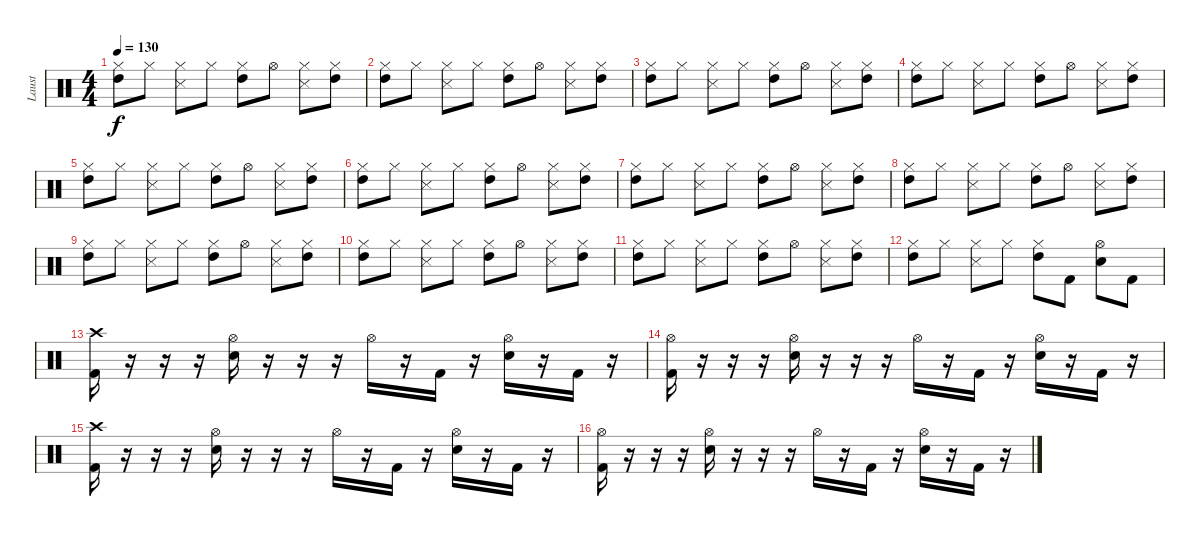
\track ("Laust" "Laust") {instrument percussion}
\staff {score}
\articulation defaults
\ts (4 4)
\tempo 130
\clef neutral
\ks c
("Hi-Hat (closed)" "High Tom (hit)").8{dy f} "Hi-Hat (closed)".8 ("Hi-Hat (closed)" "Snare (side stick) 3").8 "Hi-Hat (closed)".8 ("Hi-Hat (closed)" "High Tom (hit)").8 "Hi-Hat (open)".8 ("Hi-Hat (closed)" "Snare (side stick) 3").8 ("Hi-Hat (closed)" "High Tom (hit)").8 |
("Hi-Hat (closed)" "High Tom (hit)").8 "Hi-Hat (closed)".8 ("Hi-Hat (closed)" "Snare (side stick) 3").8 "Hi-Hat (closed)".8 ("Hi-Hat (closed)" "High Tom (hit)").8 "Hi-Hat (open)".8 ("Hi-Hat (closed)" "Snare (side stick) 3").8 ("Hi-Hat (closed)" "High Tom (hit)").8 |
("Hi-Hat (closed)" "High Tom (hit)").8 "Hi-Hat (closed)".8 ("Hi-Hat (closed)" "Snare (side stick) 3").8 "Hi-Hat (closed)".8 ("Hi-Hat (closed)" "High Tom (hit)").8 "Hi-Hat (open)".8 ("Hi-Hat (closed)" "Snare (side stick) 3").8 ("Hi-Hat (closed)" "High Tom (hit)").8 |
("Hi-Hat (closed)" "High Tom (hit)").8 "Hi-Hat (closed)".8 ("Hi-Hat (closed)" "Snare (side stick) 3").8 "Hi-Hat (closed)".8 ("Hi-Hat (closed)" "High Tom (hit)").8 "Hi-Hat (open)".8 ("Hi-Hat (closed)" "Snare (side stick) 3").8 ("Hi-Hat (closed)" "High Tom (hit)").8 |
("Hi-Hat (closed)" "High Tom (hit)").8 "Hi-Hat (closed)".8 ("Hi-Hat (closed)" "Snare (side stick) 3").8 "Hi-Hat (closed)".8 ("Hi-Hat (closed)" "High Tom (hit)").8 "Hi-Hat (open)".8 ("Hi-Hat (closed)" "Snare (side stick) 3").8 ("Hi-Hat (closed)" "High Tom (hit)").8 |
("Hi-Hat (closed)" "High Tom (hit)").8 "Hi-Hat (closed)".8 ("Hi-Hat (closed)" "Snare (side stick) 3").8 "Hi-Hat (closed)".8 ("Hi-Hat (closed)" "High Tom (hit)").8 "Hi-Hat (open)".8 ("Hi-Hat (closed)" "Snare (side stick) 3").8 ("Hi-Hat (closed)" "High Tom (hit)").8 |
("Hi-Hat (closed)" "High Tom (hit)").8 "Hi-Hat (closed)".8 ("Hi-Hat (closed)" "Snare (side stick) 3").8 "Hi-Hat (closed)".8 ("Hi-Hat (closed)" "High Tom (hit)").8 "Hi-Hat (open)".8 ("Hi-Hat (closed)" "Snare (side stick) 3").8 ("Hi-Hat (closed)" "High Tom (hit)").8 |
("Hi-Hat (closed)" "High Tom (hit)").8 "Hi-Hat (closed)".8 ("Hi-Hat (closed)" "Snare (side stick) 3").8 "Hi-Hat (closed)".8 ("Hi-Hat (closed)" "High Tom (hit)").8 "Hi-Hat (open)".8 ("Hi-Hat (closed)" "Snare (side stick) 3").8 ("Hi-Hat (closed)" "High Tom (hit)").8 |
("Hi-Hat (closed)" "High Tom (hit)").8 "Hi-Hat (closed)".8 ("Hi-Hat (closed)" "Snare (side stick) 3").8 "Hi-Hat (closed)".8 ("Hi-Hat (closed)" "High Tom (hit)").8 "Hi-Hat (open)".8 ("Hi-Hat (closed)" "Snare (side stick) 3").8 ("Hi-Hat (closed)" "High Tom (hit)").8 |
("Hi-Hat (closed)" "High Tom (hit)").8 "Hi-Hat (closed)".8 ("Hi-Hat (closed)" "Snare (side stick) 3").8 "Hi-Hat (closed)".8 ("Hi-Hat (closed)" "High Tom (hit)").8 "Hi-Hat (open)".8 ("Hi-Hat (closed)" "Snare (side stick) 3").8 ("Hi-Hat (closed)" "High Tom (hit)").8 |
("Hi-Hat (closed)" "High Tom (hit)").8 "Hi-Hat (closed)".8 ("Hi-Hat (closed)" "Snare (side stick) 3").8 "Hi-Hat (closed)".8 ("Hi-Hat (closed)" "High Tom (hit)").8 "Hi-Hat (open)".8 ("Hi-Hat (closed)" "Snare (side stick) 3").8 ("Hi-Hat (closed)" "High Tom (hit)").8 |
("Hi-Hat (closed)" "High Tom (hit)").8 "Hi-Hat (closed)".8 ("Hi-Hat (closed)" "Snare (side stick) 3").8 "Hi-Hat (closed)".8 ("Hi-Hat (closed)" "High Tom (hit)").8 "Kick (hit) 2".8 ("Hi-Hat (open)" "Snare (hit) 2").8 "Kick (hit) 2".8 |
("Crash high (hit)" "Kick (hit) 2").16 r.16 r.16 r.16 ("Hi-Hat (open)" "Snare (hit) 2").16 r.16 r.16 r.16 "Hi-Hat (open)".16 r.16 "Kick (hit) 2".16 r.16 ("Hi-Hat (open)" "Snare (hit) 2").16 r.16 "Kick (hit) 2".16 r.16 |
("Hi-Hat (open)" "Kick (hit) 2").16 r.16 r.16 r.16 ("Hi-Hat (open)" "Snare (hit) 2").16 r.16 r.16 r.16 "Hi-Hat (open)".16 r.16 "Kick (hit) 2".16 r.16 ("Hi-Hat (open)" "Snare (hit) 2").16 r.16 "Kick (hit) 2".16 r.16 |
("Crash high (hit)" "Kick (hit) 2").16 r.16 r.16 r.16 ("Hi-Hat (open)" "Snare (hit) 2").16 r.16 r.16 r.16 "Hi-Hat (open)".16 r.16 "Kick (hit) 2".16 r.16 ("Hi-Hat (open)" "Snare (hit) 2").16 r.16 "Kick (hit) 2".16 r.16 |
("Hi-Hat (open)" "Kick (hit) 2").16 r.16 r.16 r.16 ("Hi-Hat (open)" "Snare (hit) 2").16 r.16 r.16 r.16 "Hi-Hat (open)".16 r.16 "Kick (hit) 2".16 r.16 ("Hi-Hat (open)" "Snare (hit) 2").16 r.16 "Kick (hit) 2".16 r.16
